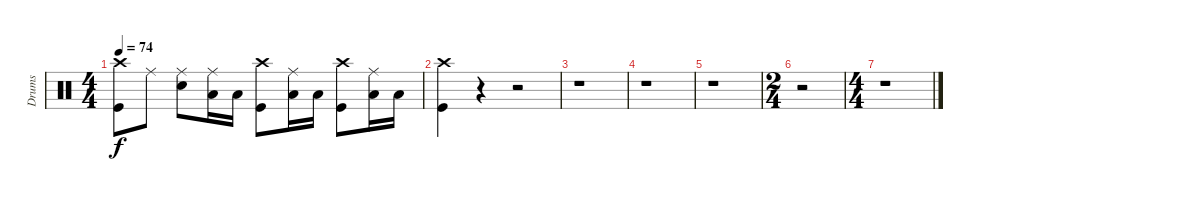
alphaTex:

\track ("Drums" "Drums") {instrument percussion}
\staff {score}
\articulation defaults
\ts (4 4)
\tempo 74
\clef neutral
\ks c
("Crash high (hit)" "Kick (hit)").8{dy f} "Ride (middle)".8 ("Ride (middle)" "Electric Snare (hit)").8 ("Ride (middle)" "Low Floor Tom (hit)").16 "Low Floor Tom (hit)".16 ("Crash high (hit)" "Kick (hit)").8 ("Ride (middle)" "Low Floor Tom (hit)").16 "Low Floor Tom (hit)".16 ("Crash high (hit)" "Kick (hit)").8 ("Ride (middle)" "Low Floor Tom (hit)").16 "Low Floor Tom (hit)".16 |
("Crash high (hit)" "Kick (hit)").4 r.4 r.2 |
r.1 |
r.1 |
r.1 |
\ts (2 4)
r.2 |
\ts (4 4)
r.1
